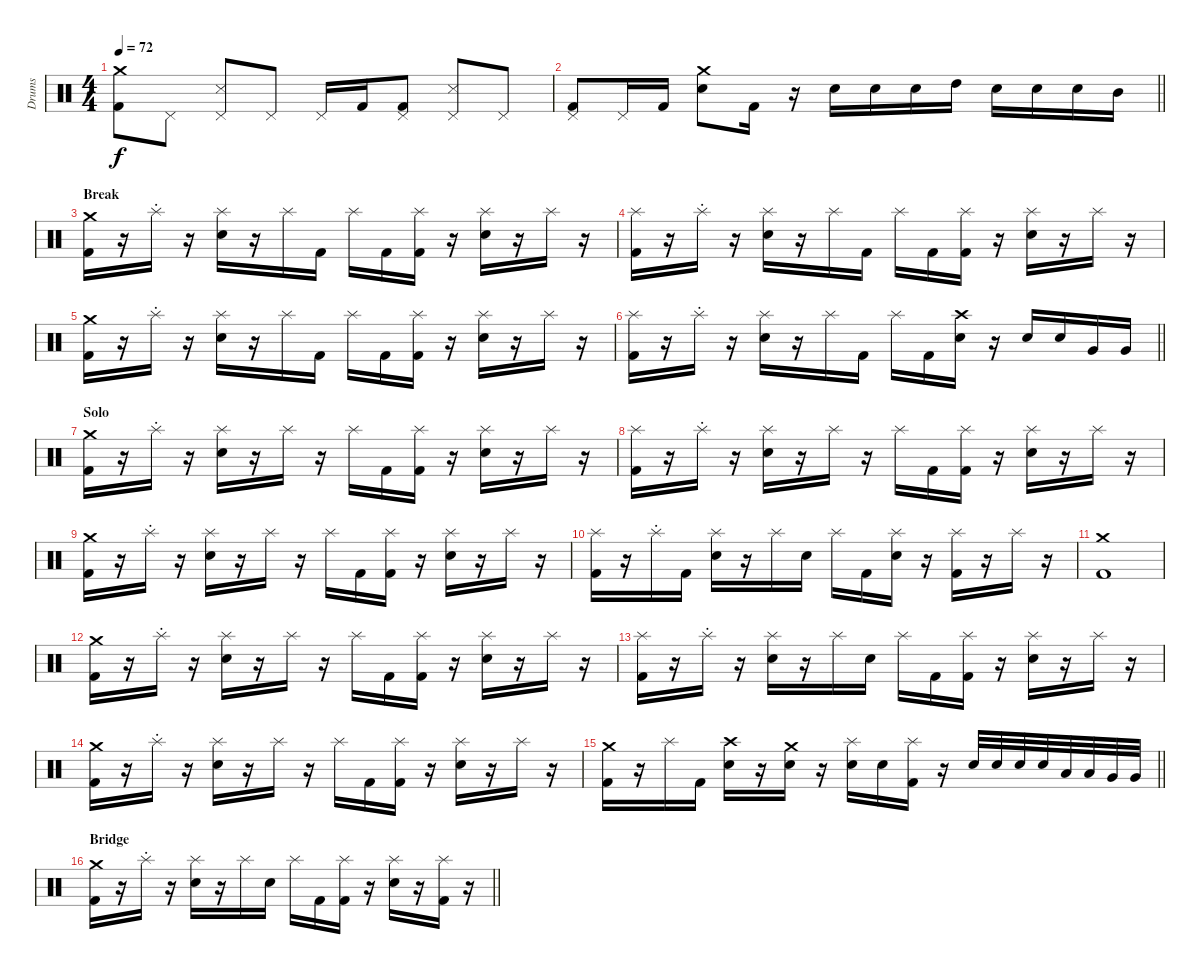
\track ("Drums" "Drums") {instrument percussion}
\staff {score}
\articulation defaults
\ts (4 4)
\tempo 72
\clef neutral
\ks c
("Crash medium (hit)" "Kick (hit) 2").8{dy f} "Pedal Hi-Hat (hit)".8 ("Pedal Hi-Hat (hit)" "Snare (side stick) 3").8 "Pedal Hi-Hat (hit)".8 "Pedal Hi-Hat (hit)".16 "Kick (hit) 2".16 ("Pedal Hi-Hat (hit)" "Kick (hit) 2").8 ("Pedal Hi-Hat (hit)" "Snare (side stick) 3").8 "Pedal Hi-Hat (hit)".8 |
\barLineRight lightlight
("Pedal Hi-Hat (hit)" "Kick (hit) 2").8 "Pedal Hi-Hat (hit)".16 "Kick (hit) 2".16 ("Crash medium (hit)" "Electric Snare (hit)").8 "Kick (hit) 2".16 r.16 "Electric Snare (hit)".16 "Electric Snare (hit)".16 "Electric Snare (hit)".16 "High Tom (hit)".16 "Electric Snare (hit)".16 "Electric Snare (hit)".16 "Electric Snare (hit)".16 "Mid Tom (hit)".16 |
\section ("" "Break")
("Crash medium (hit)" "Kick (hit) 2").16 r.16 "Splash (hit)"{st}.16 r.16 ("Splash (hit)" "Electric Snare (hit)").16 r.16 "Splash (hit)".16 "Kick (hit) 2".16 "Splash (hit)".16 "Kick (hit) 2".16 ("Splash (hit)" "Kick (hit) 2").16 r.16 ("Splash (hit)" "Electric Snare (hit)").16 r.16 "Splash (hit)".16 r.16 |
("Splash (hit)" "Kick (hit) 2").16 r.16 "Splash (hit)"{st}.16 r.16 ("Splash (hit)" "Electric Snare (hit)").16 r.16 "Splash (hit)".16 "Kick (hit) 2".16 "Splash (hit)".16 "Kick (hit) 2".16 ("Splash (hit)" "Kick (hit) 2").16 r.16 ("Splash (hit)" "Electric Snare (hit)").16 r.16 "Splash (hit)".16 r.16 |
("Crash medium (hit)" "Kick (hit) 2").16 r.16 "Splash (hit)"{st}.16 r.16 ("Splash (hit)" "Electric Snare (hit)").16 r.16 "Splash (hit)".16 "Kick (hit) 2".16 "Splash (hit)".16 "Kick (hit) 2".16 ("Splash (hit)" "Kick (hit) 2").16 r.16 ("Splash (hit)" "Electric Snare (hit)").16 r.16 "Splash (hit)".16 r.16 |
\barLineRight lightlight
("Splash (hit)" "Kick (hit) 2").16 r.16 "Splash (hit)"{st}.16 r.16 ("Splash (hit)" "Electric Snare (hit)").16 r.16 "Splash (hit)".16 "Kick (hit) 2".16 "Splash (hit)".16 "Kick (hit) 2".16 ("Crash high (hit)" "Electric Snare (hit)").16 r.16 "Electric Snare (hit)".16 "Electric Snare (hit)".16 "Very Low Tom (hit)".16 "Very Low Tom (hit)".16 |
\section ("" "Solo")
("Crash medium (hit)" "Kick (hit) 2").16 r.16 "Splash (hit)"{st}.16 r.16 ("Splash (hit)" "Electric Snare (hit)").16 r.16 "Splash (hit)".16 r.16 "Splash (hit)".16 "Kick (hit) 2".16 ("Splash (hit)" "Kick (hit) 2").16 r.16 ("Splash (hit)" "Electric Snare (hit)").16 r.16 "Splash (hit)".16 r.16 |
("Splash (hit)" "Kick (hit) 2").16 r.16 "Splash (hit)"{st}.16 r.16 ("Splash (hit)" "Electric Snare (hit)").16 r.16 "Splash (hit)".16 r.16 "Splash (hit)".16 "Kick (hit) 2".16 ("Splash (hit)" "Kick (hit) 2").16 r.16 ("Splash (hit)" "Electric Snare (hit)").16 r.16 "Splash (hit)".16 r.16 |
("Crash medium (hit)" "Kick (hit) 2").16 r.16 "Splash (hit)"{st}.16 r.16 ("Splash (hit)" "Electric Snare (hit)").16 r.16 "Splash (hit)".16 r.16 "Splash (hit)".16 "Kick (hit) 2".16 ("Splash (hit)" "Kick (hit) 2").16 r.16 ("Splash (hit)" "Electric Snare (hit)").16 r.16 "Splash (hit)".16 r.16 |
("Splash (hit)" "Kick (hit) 2").16 r.16 "Splash (hit)"{st}.16 "Kick (hit) 2".16 ("Splash (hit)" "Electric Snare (hit)").16 r.16 "Splash (hit)".16 "Electric Snare (hit)".16 "Splash (hit)".16 "Kick (hit) 2".16 ("Splash (hit)" "Electric Snare (hit)").16 r.16 ("Splash (hit)" "Kick (hit) 2").16 r.16 "Splash (hit)".16 r.16 |
("Crash medium (hit)" "Kick (hit) 2").1 |
("Crash medium (hit)" "Kick (hit) 2").16 r.16 "Splash (hit)"{st}.16 r.16 ("Splash (hit)" "Electric Snare (hit)").16 r.16 "Splash (hit)".16 r.16 "Splash (hit)".16 "Kick (hit) 2".16 ("Splash (hit)" "Kick (hit) 2").16 r.16 ("Splash (hit)" "Electric Snare (hit)").16 r.16 "Splash (hit)".16 r.16 |
("Splash (hit)" "Kick (hit) 2").16 r.16 "Splash (hit)"{st}.16 r.16 ("Splash (hit)" "Electric Snare (hit)").16 r.16 "Splash (hit)".16 "Electric Snare (hit)".16 "Splash (hit)".16 "Kick (hit) 2".16 ("Splash (hit)" "Kick (hit) 2").16 r.16 ("Splash (hit)" "Electric Snare (hit)").16 r.16 "Splash (hit)".16 r.16 |
("Crash medium (hit)" "Kick (hit) 2").16 r.16 "Splash (hit)"{st}.16 r.16 ("Splash (hit)" "Electric Snare (hit)").16 r.16 "Splash (hit)".16 r.16 "Splash (hit)".16 "Kick (hit) 2".16 ("Splash (hit)" "Kick (hit) 2").16 r.16 ("Splash (hit)" "Electric Snare (hit)").16 r.16 "Splash (hit)".16 r.16 |
\barLineRight lightlight
("Crash medium (hit)" "Kick (hit) 2").16 r.16 "Splash (hit)".16 "Kick (hit) 2".16 ("Crash high (hit)" "Electric Snare (hit)").16 r.16 ("Crash medium (hit)" "Electric Snare (hit)").16 r.16 ("Splash (hit)" "Electric Snare (hit)").16 "Electric Snare (hit)".16 ("Splash (hit)" "Kick (hit) 2").16 r.16 "Electric Snare (hit)".32 "Electric Snare (hit)".32 "Electric Snare (hit)".32 "Electric Snare (hit)".32 "Low Tom (hit)".32 "Low Tom (hit)".32 "Very Low Tom (hit)".32 "Very Low Tom (hit)".32 |
\section ("" "Bridge")
\barLineRight lightlight
("Crash medium (hit)" "Kick (hit) 2").16 r.16 "Splash (hit)"{st}.16 r.16 ("Splash (hit)" "Electric Snare (hit)").16 r.16 "Splash (hit)".16 "Electric Snare (hit)".16 "Splash (hit)".16 "Kick (hit) 2".16 ("Splash (hit)" "Kick (hit) 2").16 r.16 ("Splash (hit)" "Electric Snare (hit)").16 r.16 ("Splash (hit)" "Kick (hit) 2").16 r.16
